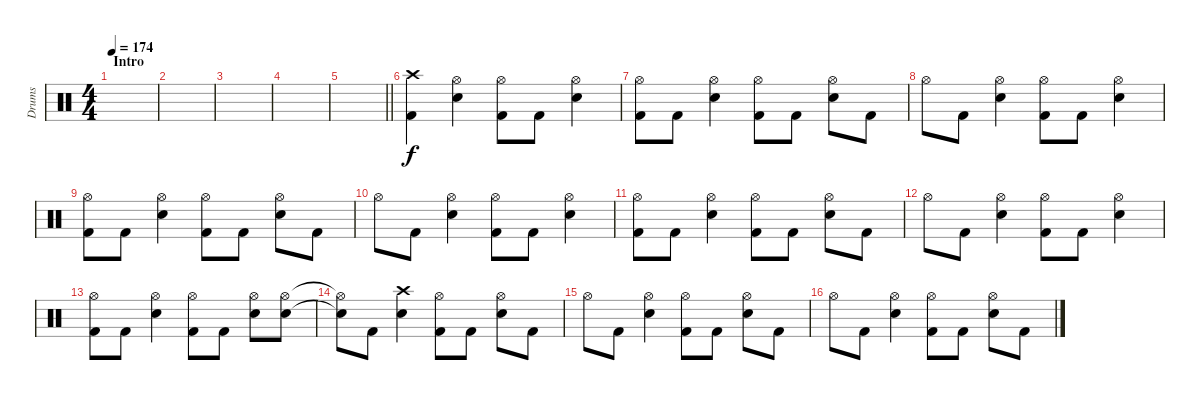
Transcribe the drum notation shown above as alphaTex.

\track ("Drums" "Drums") {instrument percussion}
\staff {score}
\articulation defaults
\ts (4 4)
\section ("" "Intro")
\tempo 174
\clef neutral
\ks c
|
|
|
|
\barLineRight lightlight
|
("Crash high (hit)" "Kick (hit) 2").4 ("Hi-Hat (open)" "Electric Snare (hit)").4 ("Hi-Hat (open)" "Kick (hit) 2").8 "Kick (hit) 2".8 ("Hi-Hat (open)" "Electric Snare (hit)").4 |
("Hi-Hat (open)" "Kick (hit) 2").8 "Kick (hit) 2".8 ("Hi-Hat (open)" "Electric Snare (hit)").4 ("Hi-Hat (open)" "Kick (hit) 2").8 "Kick (hit) 2".8 ("Hi-Hat (open)" "Electric Snare (hit)").8 "Kick (hit) 2".8 |
"Hi-Hat (open)".8 "Kick (hit) 2".8 ("Hi-Hat (open)" "Electric Snare (hit)").4 ("Hi-Hat (open)" "Kick (hit) 2").8 "Kick (hit) 2".8 ("Hi-Hat (open)" "Electric Snare (hit)").4 |
("Hi-Hat (open)" "Kick (hit) 2").8 "Kick (hit) 2".8 ("Hi-Hat (open)" "Electric Snare (hit)").4 ("Hi-Hat (open)" "Kick (hit) 2").8 "Kick (hit) 2".8 ("Hi-Hat (open)" "Electric Snare (hit)").8 "Kick (hit) 2".8 |
"Hi-Hat (open)".8 "Kick (hit) 2".8 ("Hi-Hat (open)" "Electric Snare (hit)").4 ("Hi-Hat (open)" "Kick (hit) 2").8 "Kick (hit) 2".8 ("Hi-Hat (open)" "Electric Snare (hit)").4 |
("Hi-Hat (open)" "Kick (hit) 2").8 "Kick (hit) 2".8 ("Hi-Hat (open)" "Electric Snare (hit)").4 ("Hi-Hat (open)" "Kick (hit) 2").8 "Kick (hit) 2".8 ("Hi-Hat (open)" "Electric Snare (hit)").8 "Kick (hit) 2".8 |
"Hi-Hat (open)".8 "Kick (hit) 2".8 ("Hi-Hat (open)" "Electric Snare (hit)").4 ("Hi-Hat (open)" "Kick (hit) 2").8 "Kick (hit) 2".8 ("Hi-Hat (open)" "Electric Snare (hit)").4 |
("Hi-Hat (open)" "Kick (hit) 2").8 "Kick (hit) 2".8 ("Hi-Hat (open)" "Electric Snare (hit)").4 ("Hi-Hat (open)" "Kick (hit) 2").8 "Kick (hit) 2".8 ("Hi-Hat (open)" "Electric Snare (hit)").8 ("Hi-Hat (open)" "Electric Snare (hit)").8 |
("Hi-Hat (open)"{t} "Electric Snare (hit)"{t}).8 "Kick (hit) 2".8 ("Crash high (hit)" "Electric Snare (hit)").4 ("Hi-Hat (open)" "Kick (hit) 2").8 "Kick (hit) 2".8 ("Hi-Hat (open)" "Electric Snare (hit)").8 "Kick (hit) 2".8 |
"Hi-Hat (open)".8 "Kick (hit) 2".8 ("Hi-Hat (open)" "Electric Snare (hit)").4 ("Hi-Hat (open)" "Kick (hit) 2").8 "Kick (hit) 2".8 ("Hi-Hat (open)" "Electric Snare (hit)").8 "Kick (hit) 2".8 |
"Hi-Hat (open)".8 "Kick (hit) 2".8 ("Hi-Hat (open)" "Electric Snare (hit)").4 ("Hi-Hat (open)" "Kick (hit) 2").8 "Kick (hit) 2".8 ("Hi-Hat (open)" "Electric Snare (hit)").8 "Kick (hit) 2".8
